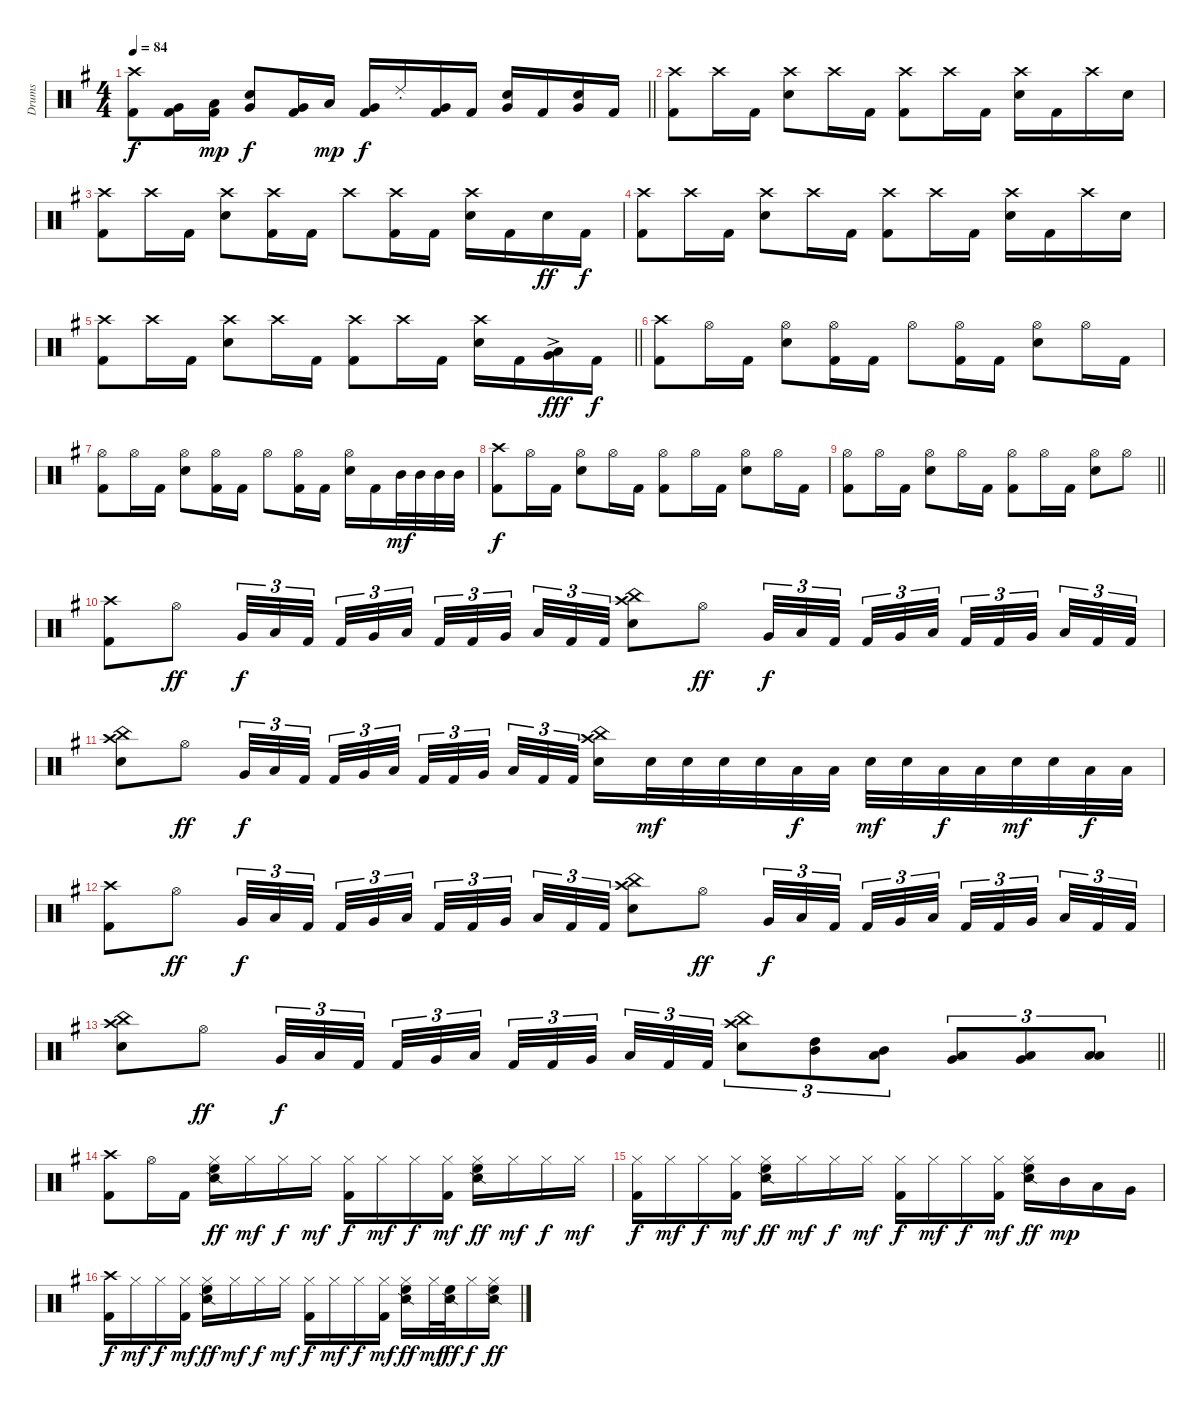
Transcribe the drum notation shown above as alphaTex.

\track ("Drums" "Drums") {instrument percussion}
\staff {score}
\articulation defaults
\ts (4 4)
\tempo 84
\clef neutral
\barLineRight lightlight
\ks eminor
("Crash high (hit)" "Kick (hit) 2").8{dy f} ("Very Low Tom (hit)" "Kick (hit) 2").16 ("Low Tom (hit)" "Kick (hit) 2").16{dy mp} ("Snare (hit) 2" "Very Low Tom (hit)").8{dy f} ("Very Low Tom (hit)" "Kick (hit) 2").16 "Low Tom (hit)".16{dy mp} ("Very Low Tom (hit)" "Kick (hit) 2").16{dy f} "Ride (choke) 2".16 ("Very Low Tom (hit)" "Kick (hit) 2").16 "Kick (hit) 2".16 ("Snare (hit) 2" "Very Low Tom (hit)").16 "Kick (hit) 2".16 ("Snare (hit) 2" "Very Low Tom (hit)").16 "Kick (hit) 2".16 |
("Crash high (hit)" "Kick (hit) 2").8 "Crash high (hit)".16 "Kick (hit) 2".16 ("Crash high (hit)" "Snare (hit) 2").8 "Crash high (hit)".16 "Kick (hit) 2".16 ("Crash high (hit)" "Kick (hit) 2").8 "Crash high (hit)".16 "Kick (hit) 2".16 ("Crash high (hit)" "Snare (hit) 2").16 "Kick (hit) 2".16 "Crash high (hit)".16 "Snare (hit) 2".16 |
("Crash high (hit)" "Kick (hit) 2").8 "Crash high (hit)".16 "Kick (hit) 2".16 ("Crash high (hit)" "Snare (hit) 2").8 ("Crash high (hit)" "Kick (hit) 2").16 "Kick (hit) 2".16 "Crash high (hit)".8 ("Crash high (hit)" "Kick (hit) 2").16 "Kick (hit) 2".16 ("Crash high (hit)" "Snare (hit) 2").16 "Kick (hit) 2".16 "Snare (hit) 2".16{dy ff} "Kick (hit) 2".16{dy f} |
("Crash high (hit)" "Kick (hit) 2").8 "Crash high (hit)".16 "Kick (hit) 2".16 ("Crash high (hit)" "Snare (hit) 2").8 "Crash high (hit)".16 "Kick (hit) 2".16 ("Crash high (hit)" "Kick (hit) 2").8 "Crash high (hit)".16 "Kick (hit) 2".16 ("Crash high (hit)" "Snare (hit) 2").16 "Kick (hit) 2".16 "Crash high (hit)".16 "Snare (hit) 2".16 |
\barLineRight lightlight
("Crash high (hit)" "Kick (hit) 2").8 "Crash high (hit)".16 "Kick (hit) 2".16 ("Crash high (hit)" "Snare (hit) 2").8 "Crash high (hit)".16 "Kick (hit) 2".16 ("Crash high (hit)" "Kick (hit) 2").8 "Crash high (hit)".16 "Kick (hit) 2".16 ("Crash high (hit)" "Snare (hit) 2").16 "Kick (hit) 2".16 ("Low Tom (hit)"{ac} "Very Low Tom (hit)"{ac}).16{dy fff} "Kick (hit) 2".16{dy f} |
("Crash high (hit)" "Kick (hit) 2").8 "Hi-Hat (open)".16 "Kick (hit) 2".16 ("Hi-Hat (open)" "Snare (hit) 2").8 ("Hi-Hat (open)" "Kick (hit) 2").16 "Kick (hit) 2".16 "Hi-Hat (open)".8 ("Hi-Hat (open)" "Kick (hit) 2").16 "Kick (hit) 2".16 ("Hi-Hat (open)" "Snare (hit) 2").8 "Hi-Hat (open)".16 "Kick (hit) 2".16 |
("Hi-Hat (open)" "Kick (hit) 2").8 "Hi-Hat (open)".16 "Kick (hit) 2".16 ("Hi-Hat (open)" "Snare (hit) 2").8 ("Hi-Hat (open)" "Kick (hit) 2").16 "Kick (hit) 2".16 "Hi-Hat (open)".8 ("Hi-Hat (open)" "Kick (hit) 2").16 "Kick (hit) 2".16 ("Hi-Hat (open)" "Snare (hit) 2").16 "Kick (hit) 2".16 "Mid Tom (hit)".32{dy mf} "Mid Tom (hit)".32 "Mid Tom (hit)".32 "Mid Tom (hit)".32 |
("Crash high (hit)" "Kick (hit) 2").8{dy f} "Hi-Hat (open)".16 "Kick (hit) 2".16 ("Hi-Hat (open)" "Snare (hit) 2").8 "Hi-Hat (open)".16 "Kick (hit) 2".16 ("Hi-Hat (open)" "Kick (hit) 2").8 "Hi-Hat (open)".16 "Kick (hit) 2".16 ("Hi-Hat (open)" "Snare (hit) 2").8 "Hi-Hat (open)".16 "Kick (hit) 2".16 |
\barLineRight lightlight
("Hi-Hat (open)" "Kick (hit) 2").8 "Hi-Hat (open)".16 "Kick (hit) 2".16 ("Hi-Hat (open)" "Snare (hit) 2").8 "Hi-Hat (open)".16 "Kick (hit) 2".16 ("Hi-Hat (open)" "Kick (hit) 2").8 "Hi-Hat (open)".16 "Kick (hit) 2".16 ("Hi-Hat (open)" "Snare (hit) 2").8 "Hi-Hat (open)".8 |
("Crash high (hit)" "Kick (hit) 2").8 "Hi-Hat (open)".8{dy ff} "Very Low Tom (hit)".32{tu (3 2) dy f} "Low Tom (hit)".32{tu (3 2)} "Kick (hit) 2".32{tu (3 2)} "Kick (hit) 2".32{tu (3 2)} "Very Low Tom (hit)".32{tu (3 2)} "Low Tom (hit)".32{tu (3 2)} "Kick (hit) 2".32{tu (3 2)} "Kick (hit) 2".32{tu (3 2)} "Very Low Tom (hit)".32{tu (3 2)} "Low Tom (hit)".32{tu (3 2)} "Kick (hit) 2".32{tu (3 2)} "Kick (hit) 2".32{tu (3 2)} ("China (hit)" "Crash high (hit)" "Snare (hit) 2").8 "Hi-Hat (open)".8{dy ff} "Very Low Tom (hit)".32{tu (3 2) dy f} "Low Tom (hit)".32{tu (3 2)} "Kick (hit) 2".32{tu (3 2)} "Kick (hit) 2".32{tu (3 2)} "Very Low Tom (hit)".32{tu (3 2)} "Low Tom (hit)".32{tu (3 2)} "Kick (hit) 2".32{tu (3 2)} "Kick (hit) 2".32{tu (3 2)} "Very Low Tom (hit)".32{tu (3 2)} "Low Tom (hit)".32{tu (3 2)} "Kick (hit) 2".32{tu (3 2)} "Kick (hit) 2".32{tu (3 2)} |
("China (hit)" "Crash high (hit)" "Snare (hit) 2").8 "Hi-Hat (open)".8{dy ff} "Very Low Tom (hit)".32{tu (3 2) dy f} "Low Tom (hit)".32{tu (3 2)} "Kick (hit) 2".32{tu (3 2)} "Kick (hit) 2".32{tu (3 2)} "Very Low Tom (hit)".32{tu (3 2)} "Low Tom (hit)".32{tu (3 2)} "Kick (hit) 2".32{tu (3 2)} "Kick (hit) 2".32{tu (3 2)} "Very Low Tom (hit)".32{tu (3 2)} "Low Tom (hit)".32{tu (3 2)} "Kick (hit) 2".32{tu (3 2)} "Kick (hit) 2".32{tu (3 2)} ("China (hit)" "Crash high (hit)" "Snare (hit) 2").16 "Snare (hit) 2".32{dy mf} "Snare (hit) 2".32 "Snare (hit) 2".32 "Snare (hit) 2".32 "Low Tom (hit)".32{dy f} "Low Tom (hit)".32 "Snare (hit) 2".32{dy mf} "Snare (hit) 2".32 "Low Tom (hit)".32{dy f} "Low Tom (hit)".32 "Snare (hit) 2".32{dy mf} "Snare (hit) 2".32 "Low Tom (hit)".32{dy f} "Low Tom (hit)".32 |
("Crash high (hit)" "Kick (hit) 2").8 "Hi-Hat (open)".8{dy ff} "Very Low Tom (hit)".32{tu (3 2) dy f} "Low Tom (hit)".32{tu (3 2)} "Kick (hit) 2".32{tu (3 2)} "Kick (hit) 2".32{tu (3 2)} "Very Low Tom (hit)".32{tu (3 2)} "Low Tom (hit)".32{tu (3 2)} "Kick (hit) 2".32{tu (3 2)} "Kick (hit) 2".32{tu (3 2)} "Very Low Tom (hit)".32{tu (3 2)} "Low Tom (hit)".32{tu (3 2)} "Kick (hit) 2".32{tu (3 2)} "Kick (hit) 2".32{tu (3 2)} ("China (hit)" "Crash high (hit)" "Snare (hit) 2").8 "Hi-Hat (open)".8{dy ff} "Very Low Tom (hit)".32{tu (3 2) dy f} "Low Tom (hit)".32{tu (3 2)} "Kick (hit) 2".32{tu (3 2)} "Kick (hit) 2".32{tu (3 2)} "Very Low Tom (hit)".32{tu (3 2)} "Low Tom (hit)".32{tu (3 2)} "Kick (hit) 2".32{tu (3 2)} "Kick (hit) 2".32{tu (3 2)} "Very Low Tom (hit)".32{tu (3 2)} "Low Tom (hit)".32{tu (3 2)} "Kick (hit) 2".32{tu (3 2)} "Kick (hit) 2".32{tu (3 2)} |
\barLineRight lightlight
("China (hit)" "Crash high (hit)" "Snare (hit) 2").8 "Hi-Hat (open)".8{dy ff} "Very Low Tom (hit)".32{tu (3 2) dy f} "Low Tom (hit)".32{tu (3 2)} "Kick (hit) 2".32{tu (3 2)} "Kick (hit) 2".32{tu (3 2)} "Very Low Tom (hit)".32{tu (3 2)} "Low Tom (hit)".32{tu (3 2)} "Kick (hit) 2".32{tu (3 2)} "Kick (hit) 2".32{tu (3 2)} "Very Low Tom (hit)".32{tu (3 2)} "Low Tom (hit)".32{tu (3 2)} "Kick (hit) 2".32{tu (3 2)} "Kick (hit) 2".32{tu (3 2)} ("China (hit)" "Crash high (hit)" "Snare (hit) 2").8{tu (3 2)} ("High Tom (hit)" "Mid Tom (hit)").8{tu (3 2)} ("Mid Tom (hit)" "Low Tom (hit)").8{tu (3 2)} ("Low Tom (hit)" "Very Low Tom (hit)").8{tu (3 2)} ("Very Low Tom (hit)" "Low Floor Tom (hit)").8{tu (3 2)} ("Low Floor Tom (hit)" "Low Floor Tom (hit)").8{tu (3 2)} |
("Crash high (hit)" "Kick (hit) 2").8 "Hi-Hat (open)".16 "Kick (hit) 2".16 ("Hi-Hat (closed)" "High Floor Tom (hit)" "Snare (side stick) 2").16{dy ff} "Hi-Hat (closed)".16{dy mf} "Hi-Hat (closed)".16{dy f} "Hi-Hat (closed)".16{dy mf} ("Hi-Hat (closed)" "Kick (hit) 2").16{dy f} "Hi-Hat (closed)".16{dy mf} "Hi-Hat (closed)".16{dy f} ("Hi-Hat (closed)" "Kick (hit) 2").16{dy mf} ("Hi-Hat (closed)" "High Floor Tom (hit)" "Snare (side stick) 2").16{dy ff} "Hi-Hat (closed)".16{dy mf} "Hi-Hat (closed)".16{dy f} "Hi-Hat (closed)".16{dy mf} |
("Hi-Hat (closed)" "Kick (hit) 2").16{dy f} "Hi-Hat (closed)".16{dy mf} "Hi-Hat (closed)".16{dy f} ("Hi-Hat (closed)" "Kick (hit) 2").16{dy mf} ("Hi-Hat (closed)" "High Floor Tom (hit)" "Snare (side stick) 2").16{dy ff} "Hi-Hat (closed)".16{dy mf} "Hi-Hat (closed)".16{dy f} "Hi-Hat (closed)".16{dy mf} ("Hi-Hat (closed)" "Kick (hit) 2").16{dy f} "Hi-Hat (closed)".16{dy mf} "Hi-Hat (closed)".16{dy f} ("Hi-Hat (closed)" "Kick (hit) 2").16{dy mf} ("Hi-Hat (closed)" "High Floor Tom (hit)" "Snare (side stick) 2").16{dy ff} "Mid Tom (hit)".16{dy mp} "Low Tom (hit)".16 "Very Low Tom (hit)".16 |
("Crash high (hit)" "Kick (hit) 2").16{dy f} "Hi-Hat (closed)".16{dy mf} "Hi-Hat (closed)".16{dy f} ("Hi-Hat (closed)" "Kick (hit) 2").16{dy mf} ("Hi-Hat (closed)" "High Floor Tom (hit)" "Snare (side stick) 2").16{dy ff} "Hi-Hat (closed)".16{dy mf} "Hi-Hat (closed)".16{dy f} "Hi-Hat (closed)".16{dy mf} ("Hi-Hat (closed)" "Kick (hit) 2").16{dy f} "Hi-Hat (closed)".16{dy mf} "Hi-Hat (closed)".16{dy f} ("Hi-Hat (closed)" "Kick (hit) 2").16{dy mf} ("Hi-Hat (closed)" "High Floor Tom (hit)" "Snare (side stick) 2").16{dy ff} "Hi-Hat (closed)".32{dy mf} ("High Floor Tom (hit)" "Snare (side stick) 2").32{dy ff} "Hi-Hat (closed)".16{dy f} ("Hi-Hat (closed)" "High Floor Tom (hit)" "Snare (side stick) 2").16{dy ff}
